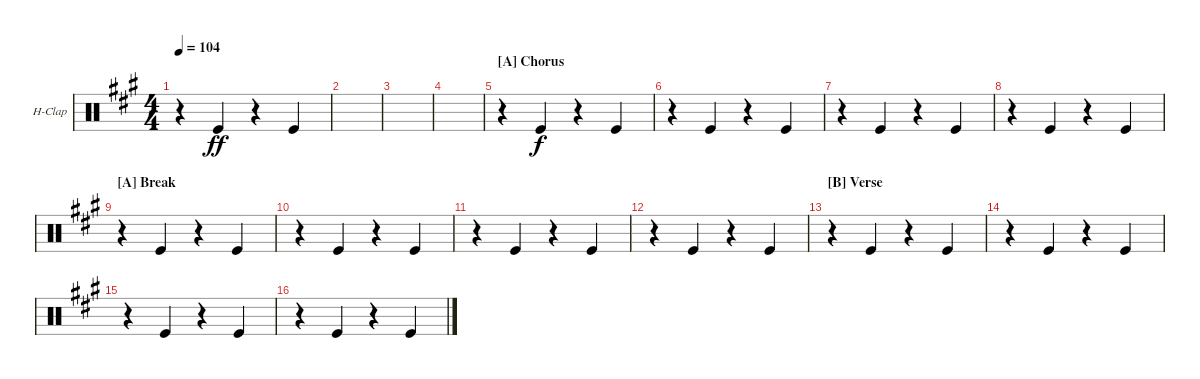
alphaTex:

\defaultSystemsLayout 4
\bracketExtendMode groupsimilarinstruments
\firstSystemTrackNameOrientation horizontal
\otherSystemsTrackNameOrientation horizontal
\track ("Hand Clap" "H-Clap") {instrument percussion}
\staff {score}
\articulation defaults
\ts (4 4)
\tempo 104
\clef neutral
\scale
0.333333
\ks a
r.4{dy ff} "Kick (hit)".4 r.4 "Kick (hit)".4 |
\scale
0.333333 |
\scale
0.333333 |
\scale
0.333333 |
\section ("A" "Chorus")
\scale
0.333333 r.4 "Kick (hit)".4{dy f} r.4 "Kick (hit)".4 |
\scale
0.333333 r.4 "Kick (hit)".4 r.4 "Kick (hit)".4 |
\scale
0.333333 r.4 "Kick (hit)".4 r.4 "Kick (hit)".4 |
\scale
0.333333 r.4 "Kick (hit)".4 r.4 "Kick (hit)".4 |
\section ("A" "Break")
\scale
0.333333 r.4 "Kick (hit)".4 r.4 "Kick (hit)".4 |
\scale
0.333333 r.4 "Kick (hit)".4 r.4 "Kick (hit)".4 |
\scale
0.333333 r.4 "Kick (hit)".4 r.4 "Kick (hit)".4 |
\scale
0.333333 r.4 "Kick (hit)".4 r.4 "Kick (hit)".4 |
\section ("B" "Verse")
r.4 "Kick (hit)".4 r.4 "Kick (hit)".4 |
r.4 "Kick (hit)".4 r.4 "Kick (hit)".4 |
r.4 "Kick (hit)".4 r.4 "Kick (hit)".4 |
r.4 "Kick (hit)".4 r.4 "Kick (hit)".4
